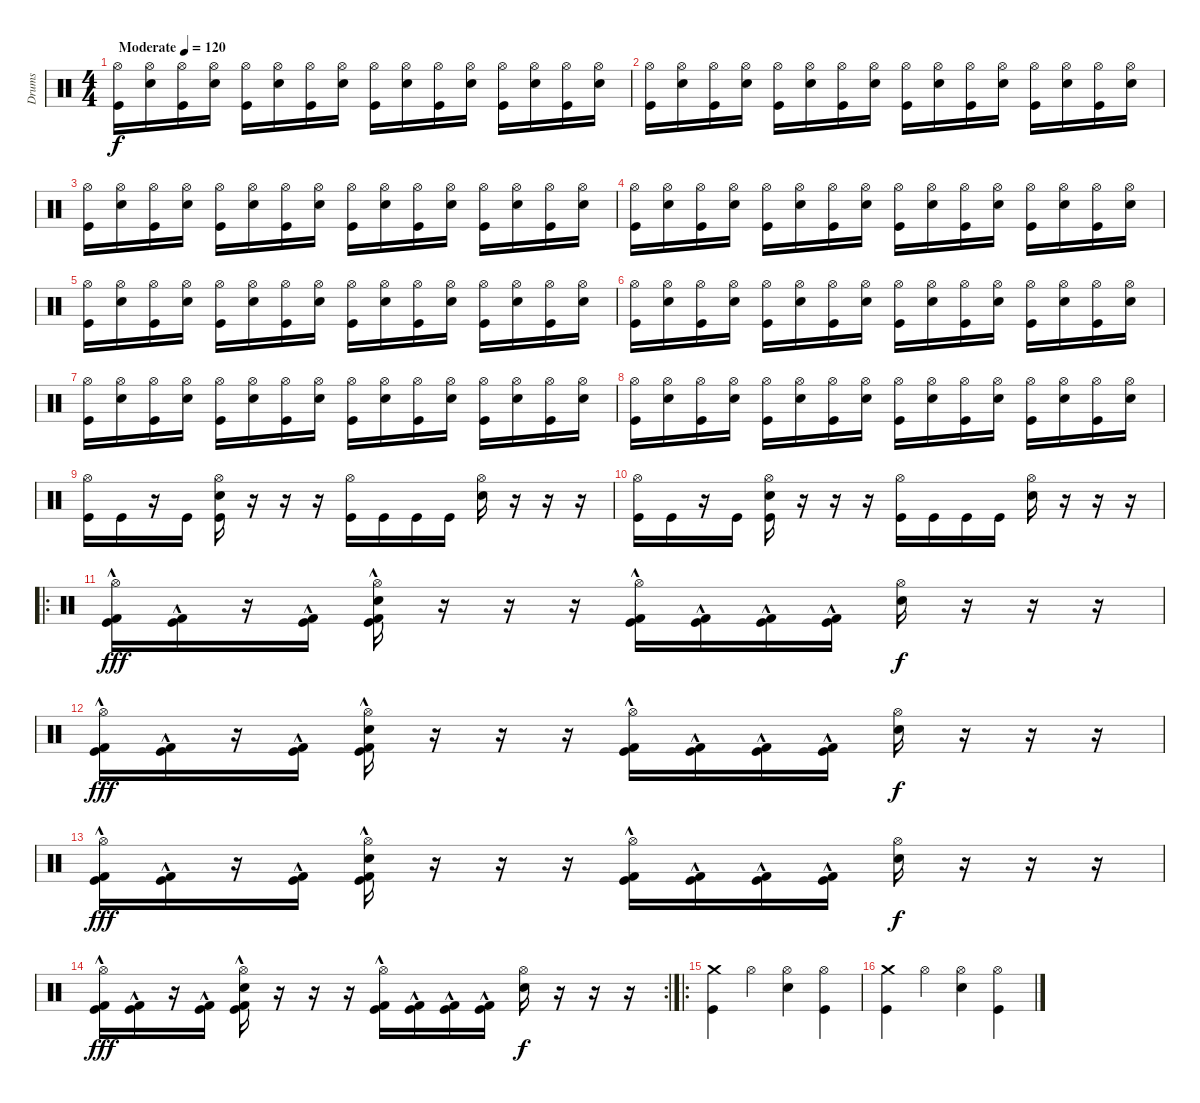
\track ("Drums" "Drums") {instrument percussion}
\staff {score}
\articulation defaults
\ts (4 4)
\tempo (120 "Moderate")
\clef neutral
\ks c
("Hi-Hat (open)" "Kick (hit)").16{dy f} ("Hi-Hat (open)" "Snare (hit) 2").16 ("Hi-Hat (open)" "Kick (hit)").16 ("Hi-Hat (open)" "Snare (hit) 2").16 ("Hi-Hat (open)" "Kick (hit)").16 ("Hi-Hat (open)" "Snare (hit) 2").16 ("Hi-Hat (open)" "Kick (hit)").16 ("Hi-Hat (open)" "Snare (hit) 2").16 ("Hi-Hat (open)" "Kick (hit)").16 ("Hi-Hat (open)" "Snare (hit) 2").16 ("Hi-Hat (open)" "Kick (hit)").16 ("Hi-Hat (open)" "Snare (hit) 2").16 ("Hi-Hat (open)" "Kick (hit)").16 ("Hi-Hat (open)" "Snare (hit) 2").16 ("Hi-Hat (open)" "Kick (hit)").16 ("Hi-Hat (open)" "Snare (hit) 2").16 |
("Hi-Hat (open)" "Kick (hit)").16 ("Hi-Hat (open)" "Snare (hit) 2").16 ("Hi-Hat (open)" "Kick (hit)").16 ("Hi-Hat (open)" "Snare (hit) 2").16 ("Hi-Hat (open)" "Kick (hit)").16 ("Hi-Hat (open)" "Snare (hit) 2").16 ("Hi-Hat (open)" "Kick (hit)").16 ("Hi-Hat (open)" "Snare (hit) 2").16 ("Hi-Hat (open)" "Kick (hit)").16 ("Hi-Hat (open)" "Snare (hit) 2").16 ("Hi-Hat (open)" "Kick (hit)").16 ("Hi-Hat (open)" "Snare (hit) 2").16 ("Hi-Hat (open)" "Kick (hit)").16 ("Hi-Hat (open)" "Snare (hit) 2").16 ("Hi-Hat (open)" "Kick (hit)").16 ("Hi-Hat (open)" "Snare (hit) 2").16 |
("Hi-Hat (open)" "Kick (hit)").16 ("Hi-Hat (open)" "Snare (hit) 2").16 ("Hi-Hat (open)" "Kick (hit)").16 ("Hi-Hat (open)" "Snare (hit) 2").16 ("Hi-Hat (open)" "Kick (hit)").16 ("Hi-Hat (open)" "Snare (hit) 2").16 ("Hi-Hat (open)" "Kick (hit)").16 ("Hi-Hat (open)" "Snare (hit) 2").16 ("Hi-Hat (open)" "Kick (hit)").16 ("Hi-Hat (open)" "Snare (hit) 2").16 ("Hi-Hat (open)" "Kick (hit)").16 ("Hi-Hat (open)" "Snare (hit) 2").16 ("Hi-Hat (open)" "Kick (hit)").16 ("Hi-Hat (open)" "Snare (hit) 2").16 ("Hi-Hat (open)" "Kick (hit)").16 ("Hi-Hat (open)" "Snare (hit) 2").16 |
("Hi-Hat (open)" "Kick (hit)").16 ("Hi-Hat (open)" "Snare (hit) 2").16 ("Hi-Hat (open)" "Kick (hit)").16 ("Hi-Hat (open)" "Snare (hit) 2").16 ("Hi-Hat (open)" "Kick (hit)").16 ("Hi-Hat (open)" "Snare (hit) 2").16 ("Hi-Hat (open)" "Kick (hit)").16 ("Hi-Hat (open)" "Snare (hit) 2").16 ("Hi-Hat (open)" "Kick (hit)").16 ("Hi-Hat (open)" "Snare (hit) 2").16 ("Hi-Hat (open)" "Kick (hit)").16 ("Hi-Hat (open)" "Snare (hit) 2").16 ("Hi-Hat (open)" "Kick (hit)").16 ("Hi-Hat (open)" "Snare (hit) 2").16 ("Hi-Hat (open)" "Kick (hit)").16 ("Hi-Hat (open)" "Snare (hit) 2").16 |
("Hi-Hat (open)" "Kick (hit)").16 ("Hi-Hat (open)" "Snare (hit) 2").16 ("Hi-Hat (open)" "Kick (hit)").16 ("Hi-Hat (open)" "Snare (hit) 2").16 ("Hi-Hat (open)" "Kick (hit)").16 ("Hi-Hat (open)" "Snare (hit) 2").16 ("Hi-Hat (open)" "Kick (hit)").16 ("Hi-Hat (open)" "Snare (hit) 2").16 ("Hi-Hat (open)" "Kick (hit)").16 ("Hi-Hat (open)" "Snare (hit) 2").16 ("Hi-Hat (open)" "Kick (hit)").16 ("Hi-Hat (open)" "Snare (hit) 2").16 ("Hi-Hat (open)" "Kick (hit)").16 ("Hi-Hat (open)" "Snare (hit) 2").16 ("Hi-Hat (open)" "Kick (hit)").16 ("Hi-Hat (open)" "Snare (hit) 2").16 |
("Hi-Hat (open)" "Kick (hit)").16 ("Hi-Hat (open)" "Snare (hit) 2").16 ("Hi-Hat (open)" "Kick (hit)").16 ("Hi-Hat (open)" "Snare (hit) 2").16 ("Hi-Hat (open)" "Kick (hit)").16 ("Hi-Hat (open)" "Snare (hit) 2").16 ("Hi-Hat (open)" "Kick (hit)").16 ("Hi-Hat (open)" "Snare (hit) 2").16 ("Hi-Hat (open)" "Kick (hit)").16 ("Hi-Hat (open)" "Snare (hit) 2").16 ("Hi-Hat (open)" "Kick (hit)").16 ("Hi-Hat (open)" "Snare (hit) 2").16 ("Hi-Hat (open)" "Kick (hit)").16 ("Hi-Hat (open)" "Snare (hit) 2").16 ("Hi-Hat (open)" "Kick (hit)").16 ("Hi-Hat (open)" "Snare (hit) 2").16 |
("Hi-Hat (open)" "Kick (hit)").16 ("Hi-Hat (open)" "Snare (hit) 2").16 ("Hi-Hat (open)" "Kick (hit)").16 ("Hi-Hat (open)" "Snare (hit) 2").16 ("Hi-Hat (open)" "Kick (hit)").16 ("Hi-Hat (open)" "Snare (hit) 2").16 ("Hi-Hat (open)" "Kick (hit)").16 ("Hi-Hat (open)" "Snare (hit) 2").16 ("Hi-Hat (open)" "Kick (hit)").16 ("Hi-Hat (open)" "Snare (hit) 2").16 ("Hi-Hat (open)" "Kick (hit)").16 ("Hi-Hat (open)" "Snare (hit) 2").16 ("Hi-Hat (open)" "Kick (hit)").16 ("Hi-Hat (open)" "Snare (hit) 2").16 ("Hi-Hat (open)" "Kick (hit)").16 ("Hi-Hat (open)" "Snare (hit) 2").16 |
("Hi-Hat (open)" "Kick (hit)").16 ("Hi-Hat (open)" "Snare (hit) 2").16 ("Hi-Hat (open)" "Kick (hit)").16 ("Hi-Hat (open)" "Snare (hit) 2").16 ("Hi-Hat (open)" "Kick (hit)").16 ("Hi-Hat (open)" "Snare (hit) 2").16 ("Hi-Hat (open)" "Kick (hit)").16 ("Hi-Hat (open)" "Snare (hit) 2").16 ("Hi-Hat (open)" "Kick (hit)").16 ("Hi-Hat (open)" "Snare (hit) 2").16 ("Hi-Hat (open)" "Kick (hit)").16 ("Hi-Hat (open)" "Snare (hit) 2").16 ("Hi-Hat (open)" "Kick (hit)").16 ("Hi-Hat (open)" "Snare (hit) 2").16 ("Hi-Hat (open)" "Kick (hit)").16 ("Hi-Hat (open)" "Snare (hit) 2").16 |
("Hi-Hat (open)" "Kick (hit)").16 "Kick (hit)".16 r.16 "Kick (hit)".16 ("Hi-Hat (open)" "Snare (hit) 2" "Kick (hit)").16 r.16 r.16 r.16 ("Hi-Hat (open)" "Kick (hit)").16 "Kick (hit)".16 "Kick (hit)".16 "Kick (hit)".16 ("Hi-Hat (open)" "Snare (hit) 2").16 r.16 r.16 r.16 |
("Hi-Hat (open)" "Kick (hit)").16 "Kick (hit)".16 r.16 "Kick (hit)".16 ("Hi-Hat (open)" "Snare (hit) 2" "Kick (hit)").16 r.16 r.16 r.16 ("Hi-Hat (open)" "Kick (hit)").16 "Kick (hit)".16 "Kick (hit)".16 "Kick (hit)".16 ("Hi-Hat (open)" "Snare (hit) 2").16 r.16 r.16 r.16 |
\ro
("Hi-Hat (open)" "Kick (hit) 2"{hac} "Kick (hit)"{hac}).16{dy fff} ("Kick (hit) 2"{hac} "Kick (hit)"{hac}).16 r.16 ("Kick (hit) 2"{hac} "Kick (hit)"{hac}).16 ("Hi-Hat (open)" "Snare (hit) 2" "Kick (hit) 2"{hac} "Kick (hit)"{hac}).16 r.16 r.16 r.16 ("Hi-Hat (open)" "Kick (hit) 2"{hac} "Kick (hit)"{hac}).16 ("Kick (hit) 2"{hac} "Kick (hit)"{hac}).16 ("Kick (hit) 2"{hac} "Kick (hit)"{hac}).16 ("Kick (hit) 2"{hac} "Kick (hit)"{hac}).16 ("Hi-Hat (open)" "Snare (hit) 2").16{dy f} r.16 r.16 r.16 |
("Hi-Hat (open)" "Kick (hit) 2"{hac} "Kick (hit)"{hac}).16{dy fff} ("Kick (hit) 2"{hac} "Kick (hit)"{hac}).16 r.16 ("Kick (hit) 2"{hac} "Kick (hit)"{hac}).16 ("Hi-Hat (open)" "Snare (hit) 2" "Kick (hit) 2"{hac} "Kick (hit)"{hac}).16 r.16 r.16 r.16 ("Hi-Hat (open)" "Kick (hit) 2"{hac} "Kick (hit)"{hac}).16 ("Kick (hit) 2"{hac} "Kick (hit)"{hac}).16 ("Kick (hit) 2"{hac} "Kick (hit)"{hac}).16 ("Kick (hit) 2"{hac} "Kick (hit)"{hac}).16 ("Hi-Hat (open)" "Snare (hit) 2").16{dy f} r.16 r.16 r.16 |
("Hi-Hat (open)" "Kick (hit) 2"{hac} "Kick (hit)"{hac}).16{dy fff} ("Kick (hit) 2"{hac} "Kick (hit)"{hac}).16 r.16 ("Kick (hit) 2"{hac} "Kick (hit)"{hac}).16 ("Hi-Hat (open)" "Snare (hit) 2" "Kick (hit) 2"{hac} "Kick (hit)"{hac}).16 r.16 r.16 r.16 ("Hi-Hat (open)" "Kick (hit) 2"{hac} "Kick (hit)"{hac}).16 ("Kick (hit) 2"{hac} "Kick (hit)"{hac}).16 ("Kick (hit) 2"{hac} "Kick (hit)"{hac}).16 ("Kick (hit) 2"{hac} "Kick (hit)"{hac}).16 ("Hi-Hat (open)" "Snare (hit) 2").16{dy f} r.16 r.16 r.16 |
\rc 2
("Hi-Hat (open)" "Kick (hit) 2"{hac} "Kick (hit)"{hac}).16{dy fff} ("Kick (hit) 2"{hac} "Kick (hit)"{hac}).16 r.16 ("Kick (hit) 2"{hac} "Kick (hit)"{hac}).16 ("Hi-Hat (open)" "Snare (hit) 2" "Kick (hit) 2"{hac} "Kick (hit)"{hac}).16 r.16 r.16 r.16 ("Hi-Hat (open)" "Kick (hit) 2"{hac} "Kick (hit)"{hac}).16 ("Kick (hit) 2"{hac} "Kick (hit)"{hac}).16 ("Kick (hit) 2"{hac} "Kick (hit)"{hac}).16 ("Kick (hit) 2"{hac} "Kick (hit)"{hac}).16 ("Hi-Hat (open)" "Snare (hit) 2").16{dy f} r.16 r.16 r.16 |
\ro
("Crash medium (hit)" "Kick (hit)").4 "Hi-Hat (open)".4 ("Hi-Hat (open)" "Snare (hit) 2").4 ("Hi-Hat (open)" "Kick (hit)").4 |
("Crash medium (hit)" "Kick (hit)").4 "Hi-Hat (open)".4 ("Hi-Hat (open)" "Snare (hit) 2").4 ("Hi-Hat (open)" "Kick (hit)").4
